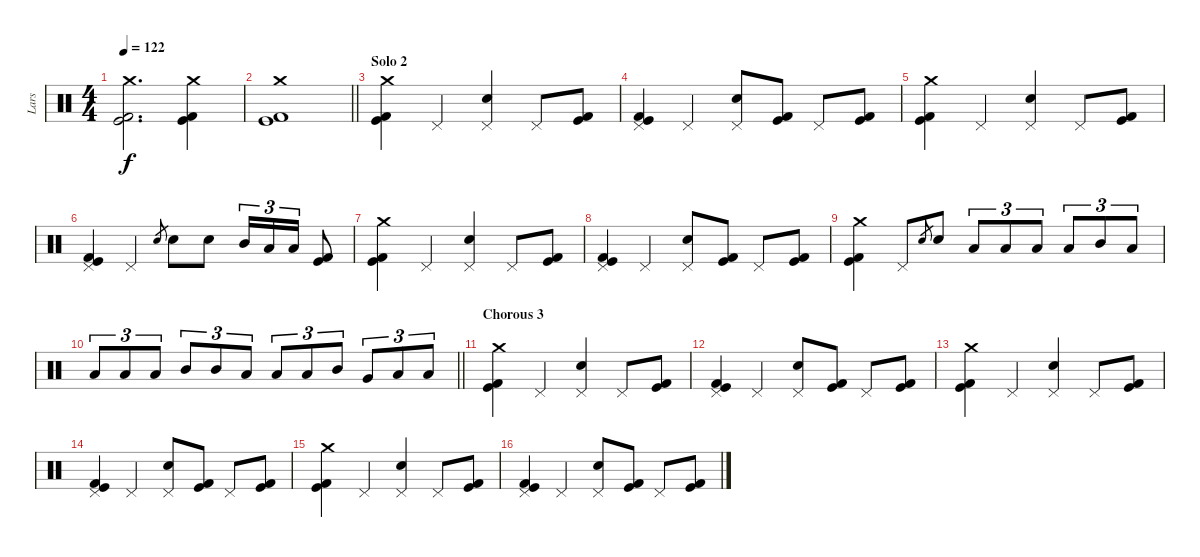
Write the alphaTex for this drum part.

\track ("Lars" "Lars") {instrument percussion}
\staff {score}
\articulation defaults
\ts (4 4)
\tempo 122
\clef neutral
\ks c
("Crash medium (hit)" "Kick (hit)" "Kick (hit) 2").2{d dy f} ("Crash medium (hit)" "Kick (hit)" "Kick (hit) 2").4 |
\barLineRight lightlight
("Crash medium (hit)" "Kick (hit)" "Kick (hit) 2").1 |
\section ("" "Solo 2")
("Crash medium (hit)" "Kick (hit)" "Kick (hit) 2").4 "Pedal Hi-Hat (hit)".4 ("Pedal Hi-Hat (hit)" "Electric Snare (hit)").4 "Pedal Hi-Hat (hit)".8 ("Kick (hit)" "Kick (hit) 2").8 |
("Pedal Hi-Hat (hit)" "Kick (hit)" "Kick (hit) 2").4 "Pedal Hi-Hat (hit)".4 ("Pedal Hi-Hat (hit)" "Electric Snare (hit)").8 ("Kick (hit)" "Kick (hit) 2").8 "Pedal Hi-Hat (hit)".8 ("Kick (hit)" "Kick (hit) 2").8 |
("Crash medium (hit)" "Kick (hit)" "Kick (hit) 2").4 "Pedal Hi-Hat (hit)".4 ("Pedal Hi-Hat (hit)" "Electric Snare (hit)").4 "Pedal Hi-Hat (hit)".8 ("Kick (hit)" "Kick (hit) 2").8 |
("Pedal Hi-Hat (hit)" "Kick (hit)" "Kick (hit) 2").4 "Pedal Hi-Hat (hit)".4 "Electric Snare (hit)".8{gr} "Electric Snare (hit)".8 "Electric Snare (hit)".8 "Mid Tom (hit)".16{tu (3 2)} "Low Tom (hit)".16{tu (3 2)} "Low Tom (hit)".16{tu (3 2)} ("Kick (hit)" "Kick (hit) 2").8 |
("Crash medium (hit)" "Kick (hit)" "Kick (hit) 2").4 "Pedal Hi-Hat (hit)".4 ("Pedal Hi-Hat (hit)" "Electric Snare (hit)").4 "Pedal Hi-Hat (hit)".8 ("Kick (hit)" "Kick (hit) 2").8 |
("Pedal Hi-Hat (hit)" "Kick (hit)" "Kick (hit) 2").4 "Pedal Hi-Hat (hit)".4 ("Pedal Hi-Hat (hit)" "Electric Snare (hit)").8 ("Kick (hit)" "Kick (hit) 2").8 "Pedal Hi-Hat (hit)".8 ("Kick (hit)" "Kick (hit) 2").8 |
("Crash medium (hit)" "Kick (hit)" "Kick (hit) 2").4 "Pedal Hi-Hat (hit)".8 "Electric Snare (hit)".8{gr} "Electric Snare (hit)".8 "Low Tom (hit)".8{tu (3 2)} "Low Tom (hit)".8{tu (3 2)} "Low Tom (hit)".8{tu (3 2)} "Low Tom (hit)".8{tu (3 2)} "Mid Tom (hit)".8{tu (3 2)} "Low Tom (hit)".8{tu (3 2)} |
\barLineRight lightlight "Low Tom (hit)".8{tu (3 2)} "Low Tom (hit)".8{tu (3 2)} "Low Tom (hit)".8{tu (3 2)} "Mid Tom (hit)".8{tu (3 2)} "Mid Tom (hit)".8{tu (3 2)} "Low Tom (hit)".8{tu (3 2)} "Low Tom (hit)".8{tu (3 2)} "Low Tom (hit)".8{tu (3 2)} "Mid Tom (hit)".8{tu (3 2)} "Very Low Tom (hit)".8{tu (3 2)} "Low Tom (hit)".8{tu (3 2)} "Low Tom (hit)".8{tu (3 2)}
|
\section ("" "Chorous 3")
("Crash medium (hit)" "Kick (hit)" "Kick (hit) 2").4 "Pedal Hi-Hat (hit)".4 ("Pedal Hi-Hat (hit)" "Electric Snare (hit)").4 "Pedal Hi-Hat (hit)".8 ("Kick (hit)" "Kick (hit) 2").8 |
("Pedal Hi-Hat (hit)" "Kick (hit)" "Kick (hit) 2").4 "Pedal Hi-Hat (hit)".4 ("Pedal Hi-Hat (hit)" "Electric Snare (hit)").8 ("Kick (hit)" "Kick (hit) 2").8 "Pedal Hi-Hat (hit)".8 ("Kick (hit)" "Kick (hit) 2").8 |
("Crash medium (hit)" "Kick (hit)" "Kick (hit) 2").4 "Pedal Hi-Hat (hit)".4 ("Pedal Hi-Hat (hit)" "Electric Snare (hit)").4 "Pedal Hi-Hat (hit)".8 ("Kick (hit)" "Kick (hit) 2").8 |
("Pedal Hi-Hat (hit)" "Kick (hit)" "Kick (hit) 2").4 "Pedal Hi-Hat (hit)".4 ("Pedal Hi-Hat (hit)" "Electric Snare (hit)").8 ("Kick (hit)" "Kick (hit) 2").8 "Pedal Hi-Hat (hit)".8 ("Kick (hit)" "Kick (hit) 2").8 |
("Crash medium (hit)" "Kick (hit)" "Kick (hit) 2").4 "Pedal Hi-Hat (hit)".4 ("Pedal Hi-Hat (hit)" "Electric Snare (hit)").4 "Pedal Hi-Hat (hit)".8 ("Kick (hit)" "Kick (hit) 2").8 |
("Pedal Hi-Hat (hit)" "Kick (hit)" "Kick (hit) 2").4 "Pedal Hi-Hat (hit)".4 ("Pedal Hi-Hat (hit)" "Electric Snare (hit)").8 ("Kick (hit)" "Kick (hit) 2").8 "Pedal Hi-Hat (hit)".8 ("Kick (hit)" "Kick (hit) 2").8
